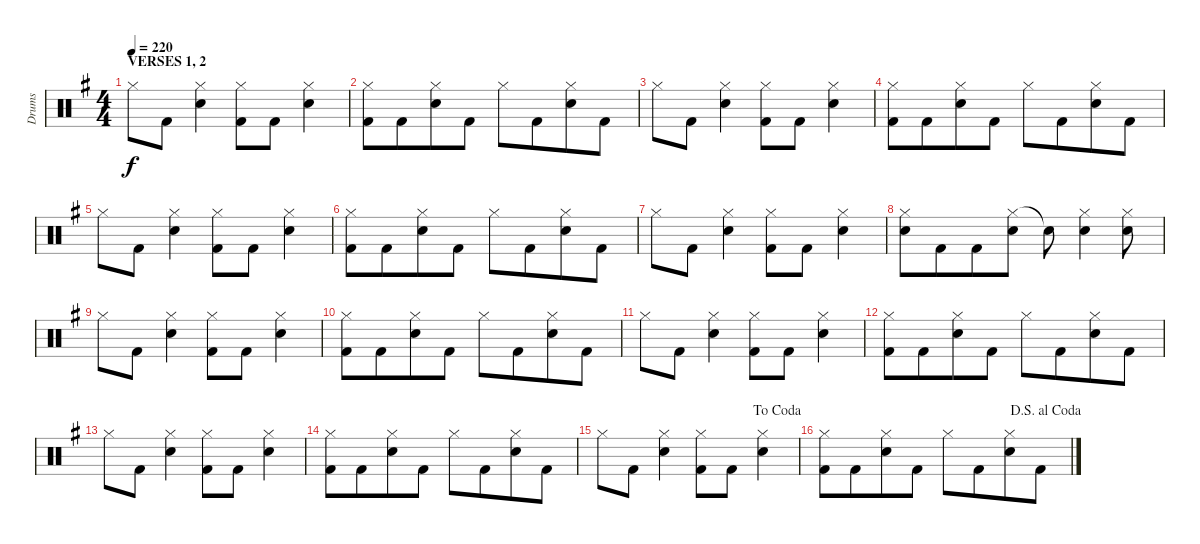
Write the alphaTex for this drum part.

\track ("Drums" "Drums") {instrument percussion}
\staff {score}
\articulation defaults
\ts (4 4)
\section ("" "VERSES 1, 2")
\tempo 220
\clef neutral
\ks eminor "Hi-Hat (closed)".8{dy f} "Kick (hit) 2".8
("Hi-Hat (closed)" "Electric Snare (hit)").4 ("Hi-Hat (closed)" "Kick (hit) 2").8 "Kick (hit) 2".8 ("Hi-Hat (closed)" "Electric Snare (hit)").4 |
("Hi-Hat (closed)" "Kick (hit) 2").8 "Kick (hit) 2".8{beam merge} ("Hi-Hat (closed)" "Electric Snare (hit)").8 "Kick (hit) 2".8 "Hi-Hat (closed)".8 "Kick (hit) 2".8{beam merge} ("Hi-Hat (closed)" "Electric Snare (hit)").8 "Kick (hit) 2".8 |
"Hi-Hat (closed)".8 "Kick (hit) 2".8 ("Hi-Hat (closed)" "Electric Snare (hit)").4 ("Hi-Hat (closed)" "Kick (hit) 2").8 "Kick (hit) 2".8 ("Hi-Hat (closed)" "Electric Snare (hit)").4 |
("Hi-Hat (closed)" "Kick (hit) 2").8 "Kick (hit) 2".8{beam merge} ("Hi-Hat (closed)" "Electric Snare (hit)").8 "Kick (hit) 2".8 "Hi-Hat (closed)".8 "Kick (hit) 2".8{beam merge} ("Hi-Hat (closed)" "Electric Snare (hit)").8 "Kick (hit) 2".8 |
"Hi-Hat (closed)".8 "Kick (hit) 2".8 ("Hi-Hat (closed)" "Electric Snare (hit)").4 ("Hi-Hat (closed)" "Kick (hit) 2").8 "Kick (hit) 2".8 ("Hi-Hat (closed)" "Electric Snare (hit)").4 |
("Hi-Hat (closed)" "Kick (hit) 2").8 "Kick (hit) 2".8{beam merge} ("Hi-Hat (closed)" "Electric Snare (hit)").8 "Kick (hit) 2".8 "Hi-Hat (closed)".8 "Kick (hit) 2".8{beam merge} ("Hi-Hat (closed)" "Electric Snare (hit)").8 "Kick (hit) 2".8 |
"Hi-Hat (closed)".8 "Kick (hit) 2".8 ("Hi-Hat (closed)" "Electric Snare (hit)").4 ("Hi-Hat (closed)" "Kick (hit) 2").8 "Kick (hit) 2".8 ("Hi-Hat (closed)" "Electric Snare (hit)").4 |
("Hi-Hat (closed)" "Electric Snare (hit)").8 "Kick (hit) 2".8{beam merge} "Kick (hit) 2".8 ("Hi-Hat (closed)" "Electric Snare (hit)").8 "Snare (hit)"{t}.8 ("Hi-Hat (closed)" "Electric Snare (hit)").4 ("Hi-Hat (closed)" "Electric Snare (hit)").8 |
"Hi-Hat (closed)".8 "Kick (hit) 2".8 ("Hi-Hat (closed)" "Electric Snare (hit)").4 ("Hi-Hat (closed)" "Kick (hit) 2").8 "Kick (hit) 2".8 ("Hi-Hat (closed)" "Electric Snare (hit)").4 |
("Hi-Hat (closed)" "Kick (hit) 2").8 "Kick (hit) 2".8{beam merge} ("Hi-Hat (closed)" "Electric Snare (hit)").8 "Kick (hit) 2".8 "Hi-Hat (closed)".8 "Kick (hit) 2".8{beam merge} ("Hi-Hat (closed)" "Electric Snare (hit)").8 "Kick (hit) 2".8 |
"Hi-Hat (closed)".8 "Kick (hit) 2".8 ("Hi-Hat (closed)" "Electric Snare (hit)").4 ("Hi-Hat (closed)" "Kick (hit) 2").8 "Kick (hit) 2".8 ("Hi-Hat (closed)" "Electric Snare (hit)").4 |
("Hi-Hat (closed)" "Kick (hit) 2").8 "Kick (hit) 2".8{beam merge} ("Hi-Hat (closed)" "Electric Snare (hit)").8 "Kick (hit) 2".8 "Hi-Hat (closed)".8 "Kick (hit) 2".8{beam merge} ("Hi-Hat (closed)" "Electric Snare (hit)").8 "Kick (hit) 2".8 |
"Hi-Hat (closed)".8 "Kick (hit) 2".8 ("Hi-Hat (closed)" "Electric Snare (hit)").4 ("Hi-Hat (closed)" "Kick (hit) 2").8 "Kick (hit) 2".8 ("Hi-Hat (closed)" "Electric Snare (hit)").4 |
("Hi-Hat (closed)" "Kick (hit) 2").8 "Kick (hit) 2".8{beam merge} ("Hi-Hat (closed)" "Electric Snare (hit)").8 "Kick (hit) 2".8 "Hi-Hat (closed)".8 "Kick (hit) 2".8{beam merge} ("Hi-Hat (closed)" "Electric Snare (hit)").8 "Kick (hit) 2".8 |
\jump dacoda "Hi-Hat (closed)".8 "Kick (hit) 2".8
("Hi-Hat (closed)" "Electric Snare (hit)").4 ("Hi-Hat (closed)" "Kick (hit) 2").8 "Kick (hit) 2".8 ("Hi-Hat (closed)" "Electric Snare (hit)").4 |
\jump dalsegnoalcoda
("Hi-Hat (closed)" "Kick (hit) 2").8 "Kick (hit) 2".8{beam merge} ("Hi-Hat (closed)" "Electric Snare (hit)").8 "Kick (hit) 2".8 "Hi-Hat (closed)".8 "Kick (hit) 2".8{beam merge} ("Hi-Hat (closed)" "Electric Snare (hit)").8 "Kick (hit) 2".8
